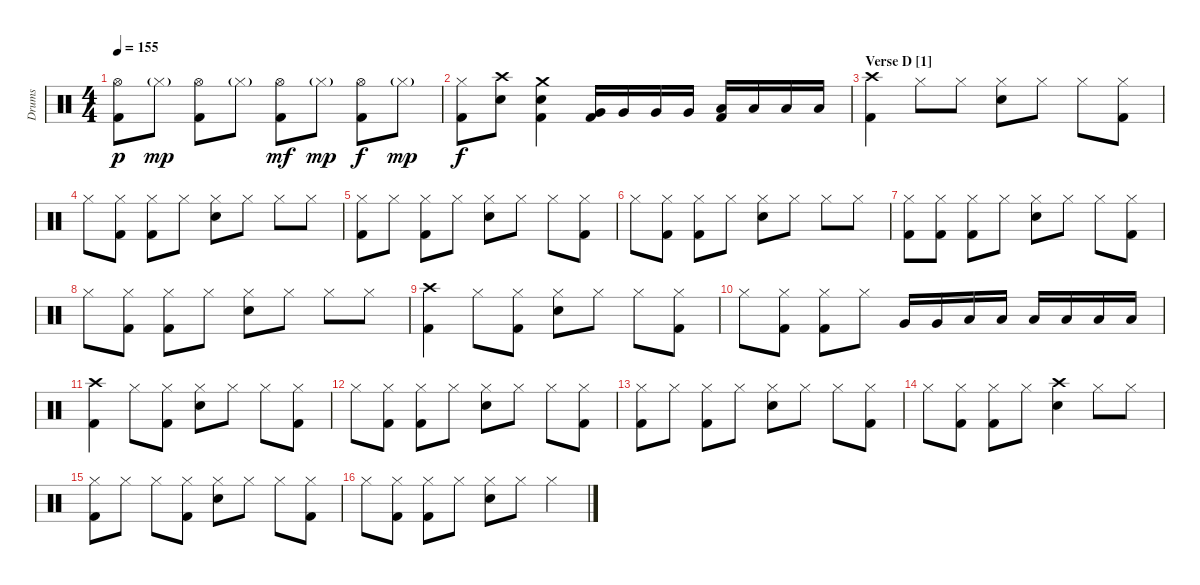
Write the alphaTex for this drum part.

\track ("Drums" "Drums") {instrument percussion}
\staff {score}
\articulation defaults
\ts (4 4)
\tempo 155
\clef neutral
\ks c
("Hi-Hat (open)" "Kick (hit) 2").8{dy p} "Hi-Hat (closed)"{g}.8{dy mp} ("Hi-Hat (open)" "Kick (hit) 2").8 "Hi-Hat (closed)"{g}.8 ("Hi-Hat (open)" "Kick (hit) 2").8{dy mf} "Hi-Hat (closed)"{g}.8{dy mp} ("Hi-Hat (open)" "Kick (hit) 2").8{dy f} "Hi-Hat (closed)"{g}.8{dy mp} |
("Hi-Hat (closed)" "Kick (hit) 2").8{dy f} ("Crash high (hit)" "Electric Snare (hit)").8 ("Crash medium (hit)" "Electric Snare (hit)" "Kick (hit) 2").4 ("Very Low Tom (hit)" "Kick (hit) 2").16 "Very Low Tom (hit)".16 "Very Low Tom (hit)".16 "Very Low Tom (hit)".16 ("Low Floor Tom (hit)" "Kick (hit) 2").16 "Low Floor Tom (hit)".16 "Low Floor Tom (hit)".16 "Low Floor Tom (hit)".16 |
\section ("" "Verse D [1]")
("Crash high (hit)" "Kick (hit) 2").4 "Hi-Hat (closed)".8 "Hi-Hat (closed)".8 ("Hi-Hat (closed)" "Electric Snare (hit)").8 "Hi-Hat (closed)".8 "Hi-Hat (closed)".8 ("Hi-Hat (closed)" "Kick (hit) 2").8 |
"Hi-Hat (closed)".8 ("Hi-Hat (closed)" "Kick (hit) 2").8 ("Hi-Hat (closed)" "Kick (hit) 2").8 "Hi-Hat (closed)".8 ("Hi-Hat (closed)" "Electric Snare (hit)").8 "Hi-Hat (closed)".8 "Hi-Hat (closed)".8 "Hi-Hat (closed)".8 |
("Hi-Hat (closed)" "Kick (hit) 2").8 "Hi-Hat (closed)".8 ("Hi-Hat (closed)" "Kick (hit) 2").8 "Hi-Hat (closed)".8 ("Hi-Hat (closed)" "Electric Snare (hit)").8 "Hi-Hat (closed)".8 "Hi-Hat (closed)".8 ("Hi-Hat (closed)" "Kick (hit) 2").8 |
"Hi-Hat (closed)".8 ("Hi-Hat (closed)" "Kick (hit) 2").8 ("Hi-Hat (closed)" "Kick (hit) 2").8 "Hi-Hat (closed)".8 ("Hi-Hat (closed)" "Electric Snare (hit)").8 "Hi-Hat (closed)".8 "Hi-Hat (closed)".8 "Hi-Hat (closed)".8 |
("Hi-Hat (closed)" "Kick (hit) 2").8 ("Hi-Hat (closed)" "Kick (hit) 2").8 ("Hi-Hat (closed)" "Kick (hit) 2").8 "Hi-Hat (closed)".8 ("Hi-Hat (closed)" "Electric Snare (hit)").8 "Hi-Hat (closed)".8 "Hi-Hat (closed)".8 ("Hi-Hat (closed)" "Kick (hit) 2").8 |
"Hi-Hat (closed)".8 ("Hi-Hat (closed)" "Kick (hit) 2").8 ("Hi-Hat (closed)" "Kick (hit) 2").8 "Hi-Hat (closed)".8 ("Hi-Hat (closed)" "Electric Snare (hit)").8 "Hi-Hat (closed)".8 "Hi-Hat (closed)".8 "Hi-Hat (closed)".8 |
("Crash high (hit)" "Kick (hit) 2").4 "Hi-Hat (closed)".8 ("Hi-Hat (closed)" "Kick (hit) 2").8 ("Hi-Hat (closed)" "Electric Snare (hit)").8 "Hi-Hat (closed)".8 "Hi-Hat (closed)".8 ("Hi-Hat (closed)" "Kick (hit) 2").8 |
"Hi-Hat (closed)".8 ("Hi-Hat (closed)" "Kick (hit) 2").8 ("Hi-Hat (closed)" "Kick (hit) 2").8 "Hi-Hat (closed)".8 "Very Low Tom (hit)".16 "Very Low Tom (hit)".16 "Low Floor Tom (hit)".16 "Low Floor Tom (hit)".16 "Low Floor Tom (hit)".16 "Low Floor Tom (hit)".16 "Low Floor Tom (hit)".16 "Low Floor Tom (hit)".16 |
("Crash high (hit)" "Kick (hit) 2").4 "Hi-Hat (closed)".8 ("Hi-Hat (closed)" "Kick (hit) 2").8 ("Hi-Hat (closed)" "Electric Snare (hit)").8 "Hi-Hat (closed)".8 "Hi-Hat (closed)".8 ("Hi-Hat (closed)" "Kick (hit) 2").8 |
"Hi-Hat (closed)".8 ("Hi-Hat (closed)" "Kick (hit) 2").8 ("Hi-Hat (closed)" "Kick (hit) 2").8 "Hi-Hat (closed)".8 ("Hi-Hat (closed)" "Electric Snare (hit)").8 "Hi-Hat (closed)".8 "Hi-Hat (closed)".8 ("Hi-Hat (closed)" "Kick (hit) 2").8 |
("Hi-Hat (closed)" "Kick (hit) 2").8 "Hi-Hat (closed)".8 ("Hi-Hat (closed)" "Kick (hit) 2").8 "Hi-Hat (closed)".8 ("Hi-Hat (closed)" "Electric Snare (hit)").8 "Hi-Hat (closed)".8 "Hi-Hat (closed)".8 ("Hi-Hat (closed)" "Kick (hit) 2").8 |
"Hi-Hat (closed)".8 ("Hi-Hat (closed)" "Kick (hit) 2").8 ("Hi-Hat (closed)" "Kick (hit) 2").8 "Hi-Hat (closed)".8 ("Crash high (hit)" "Electric Snare (hit)").4 "Hi-Hat (closed)".8 "Hi-Hat (closed)".8 |
("Hi-Hat (closed)" "Kick (hit) 2").8 "Hi-Hat (closed)".8 "Hi-Hat (closed)".8 ("Hi-Hat (closed)" "Kick (hit) 2").8 ("Hi-Hat (closed)" "Electric Snare (hit)").8 "Hi-Hat (closed)".8 "Hi-Hat (closed)".8 ("Hi-Hat (closed)" "Kick (hit) 2").8 |
"Hi-Hat (closed)".8 ("Hi-Hat (closed)" "Kick (hit) 2").8 ("Hi-Hat (closed)" "Kick (hit) 2").8 "Hi-Hat (closed)".8 ("Hi-Hat (closed)" "Electric Snare (hit)").8 "Hi-Hat (closed)".8 "Hi-Hat (closed)".4
